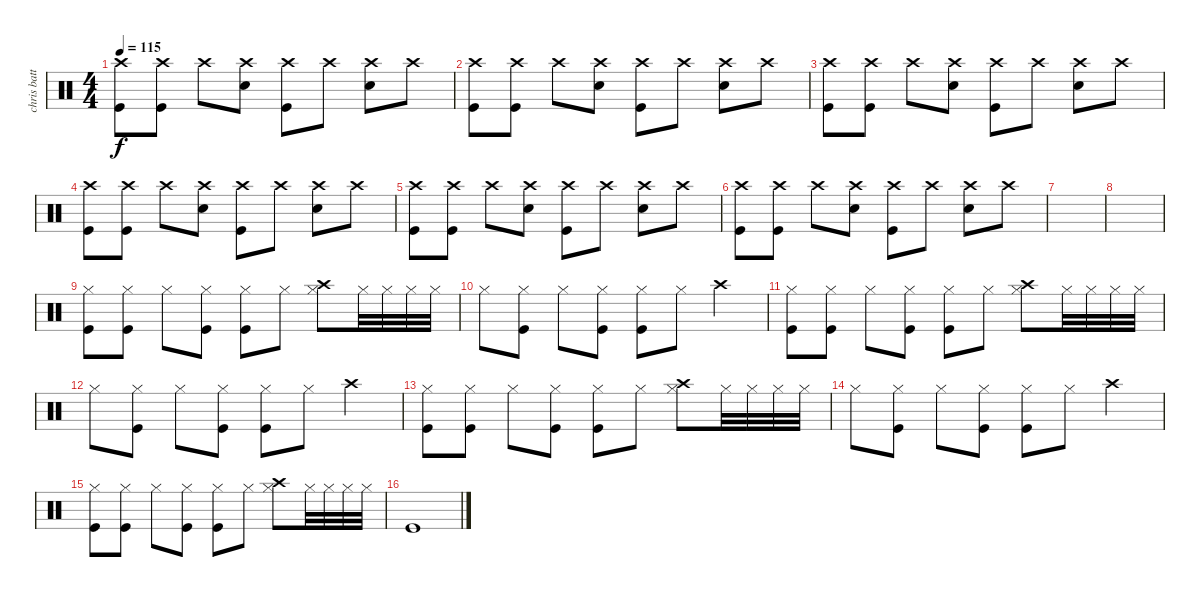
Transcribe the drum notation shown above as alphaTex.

\track ("chris batterie" "chris batt") {instrument percussion}
\staff {score}
\articulation defaults
\ts (4 4)
\tempo 115
\clef neutral
\ks c
("Crash high (hit)" "Kick (hit)").8{dy f} ("Crash high (hit)" "Kick (hit)").8 "Crash high (hit)".8 ("Crash high (hit)" "Snare (hit) 2").8 ("Crash high (hit)" "Kick (hit)").8 "Crash high (hit)".8 ("Crash high (hit)" "Snare (hit) 2").8 "Crash high (hit)".8 |
("Crash high (hit)" "Kick (hit)").8 ("Crash high (hit)" "Kick (hit)").8 "Crash high (hit)".8 ("Crash high (hit)" "Snare (hit) 2").8 ("Crash high (hit)" "Kick (hit)").8 "Crash high (hit)".8 ("Crash high (hit)" "Snare (hit) 2").8 "Crash high (hit)".8 |
("Crash high (hit)" "Kick (hit)").8 ("Crash high (hit)" "Kick (hit)").8 "Crash high (hit)".8 ("Crash high (hit)" "Snare (hit) 2").8 ("Crash high (hit)" "Kick (hit)").8 "Crash high (hit)".8 ("Crash high (hit)" "Snare (hit) 2").8 "Crash high (hit)".8 |
("Crash high (hit)" "Kick (hit)").8 ("Crash high (hit)" "Kick (hit)").8 "Crash high (hit)".8 ("Crash high (hit)" "Snare (hit) 2").8 ("Crash high (hit)" "Kick (hit)").8 "Crash high (hit)".8 ("Crash high (hit)" "Snare (hit) 2").8 "Crash high (hit)".8 |
("Crash high (hit)" "Kick (hit)").8 ("Crash high (hit)" "Kick (hit)").8 "Crash high (hit)".8 ("Crash high (hit)" "Snare (hit) 2").8 ("Crash high (hit)" "Kick (hit)").8 "Crash high (hit)".8 ("Crash high (hit)" "Snare (hit) 2").8 "Crash high (hit)".8 |
("Crash high (hit)" "Kick (hit)").8 ("Crash high (hit)" "Kick (hit)").8 "Crash high (hit)".8 ("Crash high (hit)" "Snare (hit) 2").8 ("Crash high (hit)" "Kick (hit)").8 "Crash high (hit)".8 ("Crash high (hit)" "Snare (hit) 2").8 "Crash high (hit)".8 |
|
|
("Hi-Hat (closed)" "Kick (hit)").8 ("Hi-Hat (closed)" "Kick (hit)").8 "Hi-Hat (closed)".8 ("Hi-Hat (closed)" "Kick (hit)").8 ("Hi-Hat (closed)" "Kick (hit)").8 "Hi-Hat (closed)".8 ("Hi-Hat (closed)" "Crash high (hit)").8 "Hi-Hat (closed)".32 "Hi-Hat (closed)".32 "Hi-Hat (closed)".32 "Hi-Hat (closed)".32 |
"Hi-Hat (closed)".8 ("Hi-Hat (closed)" "Kick (hit)").8 "Hi-Hat (closed)".8 ("Hi-Hat (closed)" "Kick (hit)").8 ("Hi-Hat (closed)" "Kick (hit)").8 "Hi-Hat (closed)".8 "Crash high (hit)".4 |
("Hi-Hat (closed)" "Kick (hit)").8 ("Hi-Hat (closed)" "Kick (hit)").8 "Hi-Hat (closed)".8 ("Hi-Hat (closed)" "Kick (hit)").8 ("Hi-Hat (closed)" "Kick (hit)").8 "Hi-Hat (closed)".8 ("Hi-Hat (closed)" "Crash high (hit)").8 "Hi-Hat (closed)".32 "Hi-Hat (closed)".32 "Hi-Hat (closed)".32 "Hi-Hat (closed)".32 |
"Hi-Hat (closed)".8 ("Hi-Hat (closed)" "Kick (hit)").8 "Hi-Hat (closed)".8 ("Hi-Hat (closed)" "Kick (hit)").8 ("Hi-Hat (closed)" "Kick (hit)").8 "Hi-Hat (closed)".8 "Crash high (hit)".4 |
("Hi-Hat (closed)" "Kick (hit)").8 ("Hi-Hat (closed)" "Kick (hit)").8 "Hi-Hat (closed)".8 ("Hi-Hat (closed)" "Kick (hit)").8 ("Hi-Hat (closed)" "Kick (hit)").8 "Hi-Hat (closed)".8 ("Hi-Hat (closed)" "Crash high (hit)").8 "Hi-Hat (closed)".32 "Hi-Hat (closed)".32 "Hi-Hat (closed)".32 "Hi-Hat (closed)".32 |
"Hi-Hat (closed)".8 ("Hi-Hat (closed)" "Kick (hit)").8 "Hi-Hat (closed)".8 ("Hi-Hat (closed)" "Kick (hit)").8 ("Hi-Hat (closed)" "Kick (hit)").8 "Hi-Hat (closed)".8 "Crash high (hit)".4 |
("Hi-Hat (closed)" "Kick (hit)").8 ("Hi-Hat (closed)" "Kick (hit)").8 "Hi-Hat (closed)".8 ("Hi-Hat (closed)" "Kick (hit)").8 ("Hi-Hat (closed)" "Kick (hit)").8 "Hi-Hat (closed)".8 ("Hi-Hat (closed)" "Crash high (hit)").8 "Hi-Hat (closed)".32 "Hi-Hat (closed)".32 "Hi-Hat (closed)".32 "Hi-Hat (closed)".32 |
"Kick (hit)".1
